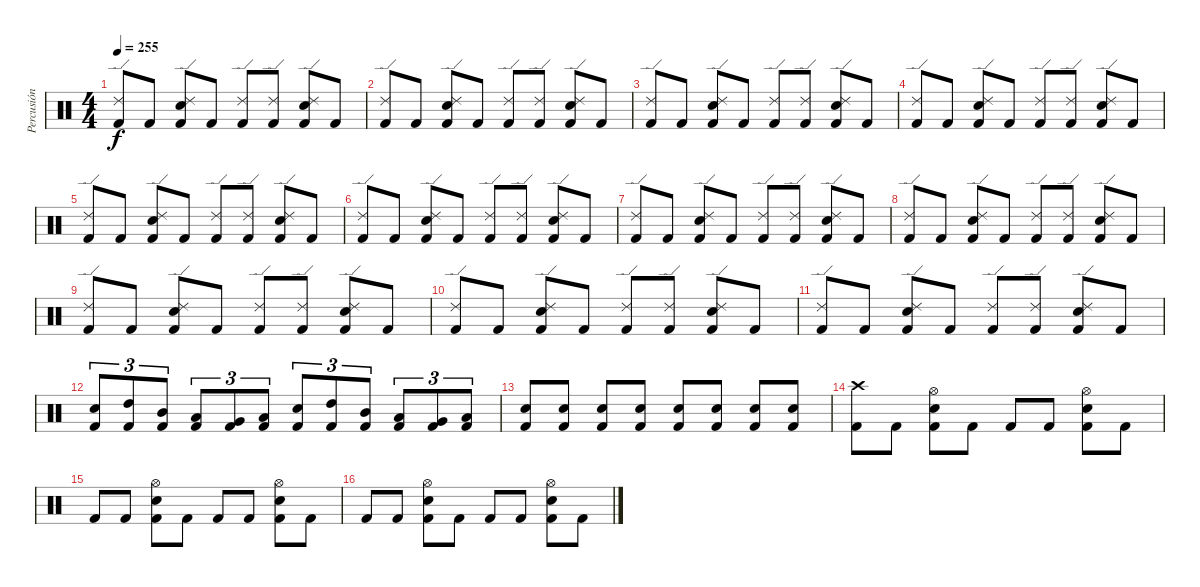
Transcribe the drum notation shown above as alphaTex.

\track ("Percusión" "Percusión") {instrument percussion}
\staff {score}
\articulation defaults
\ts (4 4)
\tempo 255
\clef neutral
\ks c
("Kick (hit) 2" "Ride (edge) 2").8{dy f} "Kick (hit) 2".8 ("Kick (hit) 2" "Electric Snare (hit)" "Ride (edge) 2").8 "Kick (hit) 2".8 ("Kick (hit) 2" "Ride (edge) 2").8 ("Kick (hit) 2" "Ride (edge) 2").8 ("Kick (hit) 2" "Electric Snare (hit)" "Ride (edge) 2").8 "Kick (hit) 2".8 |
("Kick (hit) 2" "Ride (edge) 2").8 "Kick (hit) 2".8 ("Kick (hit) 2" "Electric Snare (hit)" "Ride (edge) 2").8 "Kick (hit) 2".8 ("Kick (hit) 2" "Ride (edge) 2").8 ("Kick (hit) 2" "Ride (edge) 2").8 ("Kick (hit) 2" "Electric Snare (hit)" "Ride (edge) 2").8 "Kick (hit) 2".8 |
("Kick (hit) 2" "Ride (edge) 2").8 "Kick (hit) 2".8 ("Kick (hit) 2" "Electric Snare (hit)" "Ride (edge) 2").8 "Kick (hit) 2".8 ("Kick (hit) 2" "Ride (edge) 2").8 ("Kick (hit) 2" "Ride (edge) 2").8 ("Kick (hit) 2" "Electric Snare (hit)" "Ride (edge) 2").8 "Kick (hit) 2".8 |
("Kick (hit) 2" "Ride (edge) 2").8 "Kick (hit) 2".8 ("Kick (hit) 2" "Electric Snare (hit)" "Ride (edge) 2").8 "Kick (hit) 2".8 ("Kick (hit) 2" "Ride (edge) 2").8 ("Kick (hit) 2" "Ride (edge) 2").8 ("Kick (hit) 2" "Electric Snare (hit)" "Ride (edge) 2").8 "Kick (hit) 2".8 |
("Kick (hit) 2" "Ride (edge) 2").8 "Kick (hit) 2".8 ("Kick (hit) 2" "Electric Snare (hit)" "Ride (edge) 2").8 "Kick (hit) 2".8 ("Kick (hit) 2" "Ride (edge) 2").8 ("Kick (hit) 2" "Ride (edge) 2").8 ("Kick (hit) 2" "Electric Snare (hit)" "Ride (edge) 2").8 "Kick (hit) 2".8 |
("Kick (hit) 2" "Ride (edge) 2").8 "Kick (hit) 2".8 ("Kick (hit) 2" "Electric Snare (hit)" "Ride (edge) 2").8 "Kick (hit) 2".8 ("Kick (hit) 2" "Ride (edge) 2").8 ("Kick (hit) 2" "Ride (edge) 2").8 ("Kick (hit) 2" "Electric Snare (hit)" "Ride (edge) 2").8 "Kick (hit) 2".8 |
("Kick (hit) 2" "Ride (edge) 2").8 "Kick (hit) 2".8 ("Kick (hit) 2" "Electric Snare (hit)" "Ride (edge) 2").8 "Kick (hit) 2".8 ("Kick (hit) 2" "Ride (edge) 2").8 ("Kick (hit) 2" "Ride (edge) 2").8 ("Kick (hit) 2" "Electric Snare (hit)" "Ride (edge) 2").8 "Kick (hit) 2".8 |
("Kick (hit) 2" "Ride (edge) 2").8 "Kick (hit) 2".8 ("Kick (hit) 2" "Electric Snare (hit)" "Ride (edge) 2").8 "Kick (hit) 2".8 ("Kick (hit) 2" "Ride (edge) 2").8 ("Kick (hit) 2" "Ride (edge) 2").8 ("Kick (hit) 2" "Electric Snare (hit)" "Ride (edge) 2").8 "Kick (hit) 2".8 |
("Kick (hit) 2" "Ride (edge) 2").8 "Kick (hit) 2".8 ("Kick (hit) 2" "Electric Snare (hit)" "Ride (edge) 2").8 "Kick (hit) 2".8 ("Kick (hit) 2" "Ride (edge) 2").8 ("Kick (hit) 2" "Ride (edge) 2").8 ("Kick (hit) 2" "Electric Snare (hit)" "Ride (edge) 2").8 "Kick (hit) 2".8 |
("Kick (hit) 2" "Ride (edge) 2").8 "Kick (hit) 2".8 ("Kick (hit) 2" "Electric Snare (hit)" "Ride (edge) 2").8 "Kick (hit) 2".8 ("Kick (hit) 2" "Ride (edge) 2").8 ("Kick (hit) 2" "Ride (edge) 2").8 ("Kick (hit) 2" "Electric Snare (hit)" "Ride (edge) 2").8 "Kick (hit) 2".8 |
("Kick (hit) 2" "Ride (edge) 2").8 "Kick (hit) 2".8 ("Kick (hit) 2" "Electric Snare (hit)" "Ride (edge) 2").8 "Kick (hit) 2".8 ("Kick (hit) 2" "Ride (edge) 2").8 ("Kick (hit) 2" "Ride (edge) 2").8 ("Kick (hit) 2" "Electric Snare (hit)" "Ride (edge) 2").8 "Kick (hit) 2".8 |
("Kick (hit) 2" "Electric Snare (hit)").8{tu (3 2)} ("Kick (hit) 2" "High Tom (hit)").8{tu (3 2)} ("Kick (hit) 2" "Mid Tom (hit)").8{tu (3 2)} ("Kick (hit) 2" "Low Tom (hit)").8{tu (3 2)} ("Kick (hit) 2" "Very Low Tom (hit)").8{tu (3 2)} ("Kick (hit) 2" "Low Floor Tom (hit)").8{tu (3 2)} ("Kick (hit) 2" "Electric Snare (hit)").8{tu (3 2)} ("Kick (hit) 2" "High Tom (hit)").8{tu (3 2)} ("Kick (hit) 2" "Mid Tom (hit)").8{tu (3 2)} ("Kick (hit) 2" "Low Tom (hit)").8{tu (3 2)} ("Kick (hit) 2" "Very Low Tom (hit)").8{tu (3 2)} ("Kick (hit) 2" "Low Floor Tom (hit)").8{tu (3 2)} |
("Kick (hit) 2" "Electric Snare (hit)").8 ("Kick (hit) 2" "Electric Snare (hit)").8 ("Kick (hit) 2" "Electric Snare (hit)").8 ("Kick (hit) 2" "Electric Snare (hit)").8 ("Kick (hit) 2" "Electric Snare (hit)").8 ("Kick (hit) 2" "Electric Snare (hit)").8 ("Kick (hit) 2" "Electric Snare (hit)").8 ("Kick (hit) 2" "Electric Snare (hit)").8 |
("Kick (hit) 2" "Crash high (hit)").8 "Kick (hit) 2".8 ("Kick (hit) 2" "Electric Snare (hit)" "Hi-Hat (open)").8 "Kick (hit) 2".8 "Kick (hit) 2".8 "Kick (hit) 2".8 ("Kick (hit) 2" "Electric Snare (hit)" "Hi-Hat (open)").8 "Kick (hit) 2".8 |
"Kick (hit) 2".8 "Kick (hit) 2".8 ("Kick (hit) 2" "Electric Snare (hit)" "Hi-Hat (open)").8 "Kick (hit) 2".8 "Kick (hit) 2".8 "Kick (hit) 2".8 ("Kick (hit) 2" "Electric Snare (hit)" "Hi-Hat (open)").8 "Kick (hit) 2".8 |
"Kick (hit) 2".8 "Kick (hit) 2".8 ("Kick (hit) 2" "Electric Snare (hit)" "Hi-Hat (open)").8 "Kick (hit) 2".8 "Kick (hit) 2".8 "Kick (hit) 2".8 ("Kick (hit) 2" "Electric Snare (hit)" "Hi-Hat (open)").8 "Kick (hit) 2".8
